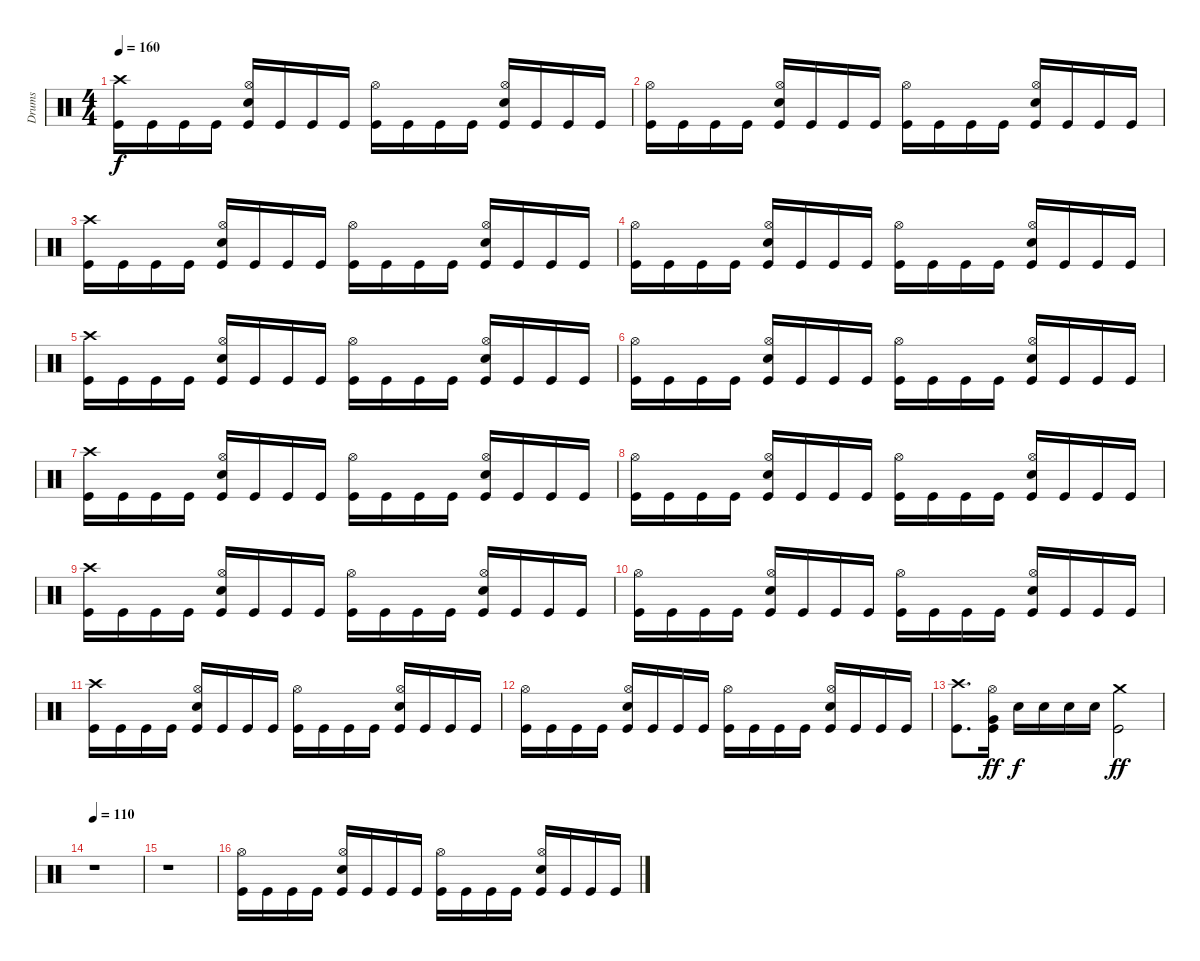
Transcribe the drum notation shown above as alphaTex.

\track ("Drums" "Drums") {instrument percussion}
\staff {score}
\articulation defaults
\ts (4 4)
\tempo 160
\clef neutral
\ks c
("Crash high (hit)" "Kick (hit)").16{dy f} "Kick (hit)".16 "Kick (hit)".16 "Kick (hit)".16 ("Hi-Hat (open)" "Snare (hit) 2" "Kick (hit)").16 "Kick (hit)".16 "Kick (hit)".16 "Kick (hit)".16 ("Hi-Hat (open)" "Kick (hit)").16 "Kick (hit)".16 "Kick (hit)".16 "Kick (hit)".16 ("Hi-Hat (open)" "Snare (hit) 2" "Kick (hit)").16 "Kick (hit)".16 "Kick (hit)".16 "Kick (hit)".16 |
("Hi-Hat (open)" "Kick (hit)").16 "Kick (hit)".16 "Kick (hit)".16 "Kick (hit)".16 ("Hi-Hat (open)" "Snare (hit) 2" "Kick (hit)").16 "Kick (hit)".16 "Kick (hit)".16 "Kick (hit)".16 ("Hi-Hat (open)" "Kick (hit)").16 "Kick (hit)".16 "Kick (hit)".16 "Kick (hit)".16 ("Hi-Hat (open)" "Snare (hit) 2" "Kick (hit)").16 "Kick (hit)".16 "Kick (hit)".16 "Kick (hit)".16 |
("Crash high (hit)" "Kick (hit)").16 "Kick (hit)".16 "Kick (hit)".16 "Kick (hit)".16 ("Hi-Hat (open)" "Snare (hit) 2" "Kick (hit)").16 "Kick (hit)".16 "Kick (hit)".16 "Kick (hit)".16 ("Hi-Hat (open)" "Kick (hit)").16 "Kick (hit)".16 "Kick (hit)".16 "Kick (hit)".16 ("Hi-Hat (open)" "Snare (hit) 2" "Kick (hit)").16 "Kick (hit)".16 "Kick (hit)".16 "Kick (hit)".16 |
("Hi-Hat (open)" "Kick (hit)").16 "Kick (hit)".16 "Kick (hit)".16 "Kick (hit)".16 ("Hi-Hat (open)" "Snare (hit) 2" "Kick (hit)").16 "Kick (hit)".16 "Kick (hit)".16 "Kick (hit)".16 ("Hi-Hat (open)" "Kick (hit)").16 "Kick (hit)".16 "Kick (hit)".16 "Kick (hit)".16 ("Hi-Hat (open)" "Snare (hit) 2" "Kick (hit)").16 "Kick (hit)".16 "Kick (hit)".16 "Kick (hit)".16 |
("Crash high (hit)" "Kick (hit)").16 "Kick (hit)".16 "Kick (hit)".16 "Kick (hit)".16 ("Hi-Hat (open)" "Snare (hit) 2" "Kick (hit)").16 "Kick (hit)".16 "Kick (hit)".16 "Kick (hit)".16 ("Hi-Hat (open)" "Kick (hit)").16 "Kick (hit)".16 "Kick (hit)".16 "Kick (hit)".16 ("Hi-Hat (open)" "Snare (hit) 2" "Kick (hit)").16 "Kick (hit)".16 "Kick (hit)".16 "Kick (hit)".16 |
("Hi-Hat (open)" "Kick (hit)").16 "Kick (hit)".16 "Kick (hit)".16 "Kick (hit)".16 ("Hi-Hat (open)" "Snare (hit) 2" "Kick (hit)").16 "Kick (hit)".16 "Kick (hit)".16 "Kick (hit)".16 ("Hi-Hat (open)" "Kick (hit)").16 "Kick (hit)".16 "Kick (hit)".16 "Kick (hit)".16 ("Hi-Hat (open)" "Snare (hit) 2" "Kick (hit)").16 "Kick (hit)".16 "Kick (hit)".16 "Kick (hit)".16 |
("Crash high (hit)" "Kick (hit)").16 "Kick (hit)".16 "Kick (hit)".16 "Kick (hit)".16 ("Hi-Hat (open)" "Snare (hit) 2" "Kick (hit)").16 "Kick (hit)".16 "Kick (hit)".16 "Kick (hit)".16 ("Hi-Hat (open)" "Kick (hit)").16 "Kick (hit)".16 "Kick (hit)".16 "Kick (hit)".16 ("Hi-Hat (open)" "Snare (hit) 2" "Kick (hit)").16 "Kick (hit)".16 "Kick (hit)".16 "Kick (hit)".16 |
("Hi-Hat (open)" "Kick (hit)").16 "Kick (hit)".16 "Kick (hit)".16 "Kick (hit)".16 ("Hi-Hat (open)" "Snare (hit) 2" "Kick (hit)").16 "Kick (hit)".16 "Kick (hit)".16 "Kick (hit)".16 ("Hi-Hat (open)" "Kick (hit)").16 "Kick (hit)".16 "Kick (hit)".16 "Kick (hit)".16 ("Hi-Hat (open)" "Snare (hit) 2" "Kick (hit)").16 "Kick (hit)".16 "Kick (hit)".16 "Kick (hit)".16 |
("Crash high (hit)" "Kick (hit)").16 "Kick (hit)".16 "Kick (hit)".16 "Kick (hit)".16 ("Hi-Hat (open)" "Snare (hit) 2" "Kick (hit)").16 "Kick (hit)".16 "Kick (hit)".16 "Kick (hit)".16 ("Hi-Hat (open)" "Kick (hit)").16 "Kick (hit)".16 "Kick (hit)".16 "Kick (hit)".16 ("Hi-Hat (open)" "Snare (hit) 2" "Kick (hit)").16 "Kick (hit)".16 "Kick (hit)".16 "Kick (hit)".16 |
("Hi-Hat (open)" "Kick (hit)").16 "Kick (hit)".16 "Kick (hit)".16 "Kick (hit)".16 ("Hi-Hat (open)" "Snare (hit) 2" "Kick (hit)").16 "Kick (hit)".16 "Kick (hit)".16 "Kick (hit)".16 ("Hi-Hat (open)" "Kick (hit)").16 "Kick (hit)".16 "Kick (hit)".16 "Kick (hit)".16 ("Hi-Hat (open)" "Snare (hit) 2" "Kick (hit)").16 "Kick (hit)".16 "Kick (hit)".16 "Kick (hit)".16 |
("Crash high (hit)" "Kick (hit)").16 "Kick (hit)".16 "Kick (hit)".16 "Kick (hit)".16 ("Hi-Hat (open)" "Snare (hit) 2" "Kick (hit)").16 "Kick (hit)".16 "Kick (hit)".16 "Kick (hit)".16 ("Hi-Hat (open)" "Kick (hit)").16 "Kick (hit)".16 "Kick (hit)".16 "Kick (hit)".16 ("Hi-Hat (open)" "Snare (hit) 2" "Kick (hit)").16 "Kick (hit)".16 "Kick (hit)".16 "Kick (hit)".16 |
("Hi-Hat (open)" "Kick (hit)").16 "Kick (hit)".16 "Kick (hit)".16 "Kick (hit)".16 ("Hi-Hat (open)" "Snare (hit) 2" "Kick (hit)").16 "Kick (hit)".16 "Kick (hit)".16 "Kick (hit)".16 ("Hi-Hat (open)" "Kick (hit)").16 "Kick (hit)".16 "Kick (hit)".16 "Kick (hit)".16 ("Hi-Hat (open)" "Snare (hit) 2" "Kick (hit)").16 "Kick (hit)".16 "Kick (hit)".16 "Kick (hit)".16 |
("Crash high (hit)" "Kick (hit)").8{d} ("Hi-Hat (open)" "Very Low Tom (hit)" "Kick (hit)").16{dy ff} "Snare (hit) 2".16{dy f} "Snare (hit) 2".16 "Snare (hit) 2".16 "Snare (hit) 2".16 ("Kick (hit)" "Crash medium (hit)").2{dy ff} |
\tempo 110
r.1 |
r.1 |
("Hi-Hat (open)" "Kick (hit)").16 "Kick (hit)".16 "Kick (hit)".16 "Kick (hit)".16 ("Hi-Hat (open)" "Snare (hit) 2" "Kick (hit)").16 "Kick (hit)".16 "Kick (hit)".16 "Kick (hit)".16 ("Hi-Hat (open)" "Kick (hit)").16 "Kick (hit)".16 "Kick (hit)".16 "Kick (hit)".16 ("Hi-Hat (open)" "Snare (hit) 2" "Kick (hit)").16 "Kick (hit)".16 "Kick (hit)".16 "Kick (hit)".16
